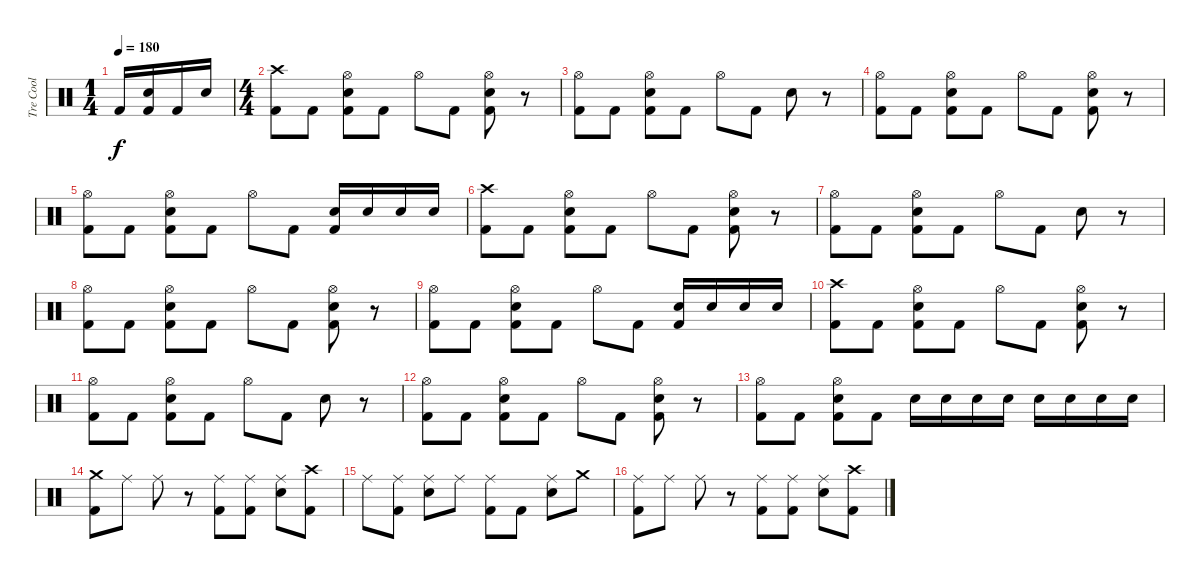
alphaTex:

\track ("Tre Cool" "Tre Cool") {instrument percussion}
\staff {score}
\articulation defaults
\ts (1 4)
\tempo 180
\clef neutral
\ks c "Kick (hit) 2".16{dy f}
("Kick (hit) 2" "Snare (hit) 2").16 "Kick (hit) 2".16 "Snare (hit) 2".16 |
\ts (4 4)
("Crash high (hit)" "Kick (hit) 2").8 "Kick (hit) 2".8 ("Kick (hit) 2" "Hi-Hat (open)" "Snare (hit) 2").8 "Kick (hit) 2".8 "Hi-Hat (open)".8 "Kick (hit) 2".8 ("Kick (hit) 2" "Hi-Hat (open)" "Snare (hit) 2").8 r.8 |
("Hi-Hat (open)" "Kick (hit) 2").8 "Kick (hit) 2".8 ("Kick (hit) 2" "Hi-Hat (open)" "Snare (hit) 2").8 "Kick (hit) 2".8 "Hi-Hat (open)".8 "Kick (hit) 2".8 "Snare (hit) 2".8 r.8 |
("Hi-Hat (open)" "Kick (hit) 2").8 "Kick (hit) 2".8 ("Kick (hit) 2" "Hi-Hat (open)" "Snare (hit) 2").8 "Kick (hit) 2".8 "Hi-Hat (open)".8 "Kick (hit) 2".8 ("Kick (hit) 2" "Hi-Hat (open)" "Snare (hit) 2").8 r.8 |
("Hi-Hat (open)" "Kick (hit) 2").8 "Kick (hit) 2".8 ("Kick (hit) 2" "Hi-Hat (open)" "Snare (hit) 2").8 "Kick (hit) 2".8 "Hi-Hat (open)".8 "Kick (hit) 2".8 ("Kick (hit) 2" "Snare (hit) 2").16 "Snare (hit) 2".16 "Snare (hit) 2".16 "Snare (hit) 2".16 |
("Kick (hit) 2" "Crash high (hit)").8 "Kick (hit) 2".8 ("Snare (hit) 2" "Hi-Hat (open)" "Kick (hit) 2").8 "Kick (hit) 2".8 "Hi-Hat (open)".8 "Kick (hit) 2".8 ("Snare (hit) 2" "Hi-Hat (open)" "Kick (hit) 2").8 r.8 |
("Kick (hit) 2" "Hi-Hat (open)").8 "Kick (hit) 2".8 ("Snare (hit) 2" "Hi-Hat (open)" "Kick (hit) 2").8 "Kick (hit) 2".8 "Hi-Hat (open)".8 "Kick (hit) 2".8 "Snare (hit) 2".8 r.8 |
("Kick (hit) 2" "Hi-Hat (open)").8 "Kick (hit) 2".8 ("Snare (hit) 2" "Hi-Hat (open)" "Kick (hit) 2").8 "Kick (hit) 2".8 "Hi-Hat (open)".8 "Kick (hit) 2".8 ("Snare (hit) 2" "Hi-Hat (open)" "Kick (hit) 2").8 r.8 |
("Kick (hit) 2" "Hi-Hat (open)").8 "Kick (hit) 2".8 ("Snare (hit) 2" "Hi-Hat (open)" "Kick (hit) 2").8 "Kick (hit) 2".8 "Hi-Hat (open)".8 "Kick (hit) 2".8 ("Snare (hit) 2" "Kick (hit) 2").16 "Snare (hit) 2".16 "Snare (hit) 2".16 "Snare (hit) 2".16 |
("Crash high (hit)" "Kick (hit) 2").8 "Kick (hit) 2".8 ("Kick (hit) 2" "Hi-Hat (open)" "Snare (hit) 2").8 "Kick (hit) 2".8 "Hi-Hat (open)".8 "Kick (hit) 2".8 ("Kick (hit) 2" "Hi-Hat (open)" "Snare (hit) 2").8 r.8 |
("Hi-Hat (open)" "Kick (hit) 2").8 "Kick (hit) 2".8 ("Kick (hit) 2" "Hi-Hat (open)" "Snare (hit) 2").8 "Kick (hit) 2".8 "Hi-Hat (open)".8 "Kick (hit) 2".8 "Snare (hit) 2".8 r.8 |
("Hi-Hat (open)" "Kick (hit) 2").8 "Kick (hit) 2".8 ("Kick (hit) 2" "Hi-Hat (open)" "Snare (hit) 2").8 "Kick (hit) 2".8 "Hi-Hat (open)".8 "Kick (hit) 2".8 ("Kick (hit) 2" "Hi-Hat (open)" "Snare (hit) 2").8 r.8 |
("Hi-Hat (open)" "Kick (hit) 2").8 "Kick (hit) 2".8 ("Kick (hit) 2" "Hi-Hat (open)" "Snare (hit) 2").8 "Kick (hit) 2".8 "Snare (hit) 2".16 "Snare (hit) 2".16 "Snare (hit) 2".16 "Snare (hit) 2".16 "Snare (hit) 2".16 "Snare (hit) 2".16 "Snare (hit) 2".16 "Snare (hit) 2".16 |
("Crash medium (hit)" "Kick (hit) 2").8 "Ride (middle)".8 "Ride (middle)".8 r.8 ("Ride (middle)" "Kick (hit) 2").8 ("Ride (middle)" "Kick (hit) 2").8 ("Ride (middle)" "Snare (hit) 2").8 ("Crash high (hit)" "Kick (hit) 2").8 |
"Ride (middle)".8 ("Ride (middle)" "Kick (hit) 2").8 ("Ride (middle)" "Snare (hit) 2").8 "Ride (middle)".8 ("Ride (middle)" "Kick (hit) 2").8 "Kick (hit) 2".8 ("Ride (middle)" "Snare (hit) 2").8 "Crash medium (hit)".8 |
("Ride (middle)" "Kick (hit) 2").8 "Ride (middle)".8 "Ride (middle)".8 r.8 ("Kick (hit) 2" "Ride (middle)").8 ("Kick (hit) 2" "Ride (middle)").8 ("Snare (hit) 2" "Ride (middle)").8 ("Kick (hit) 2" "Crash high (hit)").8
